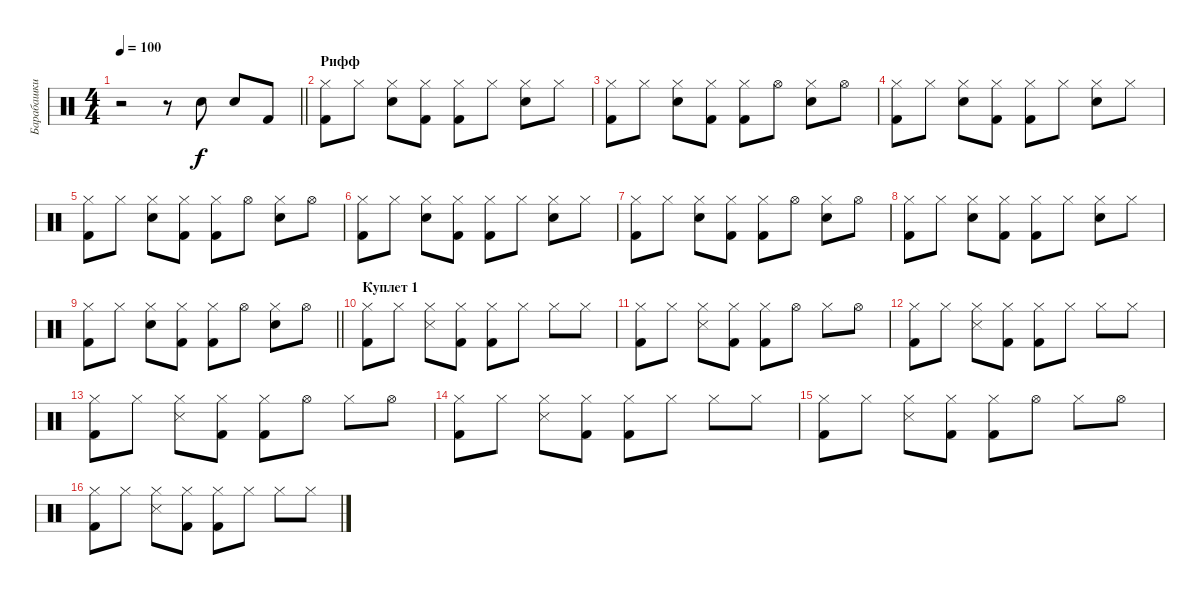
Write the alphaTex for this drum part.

\track ("Барабашки" "Барабашки") {instrument percussion}
\staff {score}
\articulation defaults
\ts (4 4)
\tempo 100
\clef neutral
\barLineRight lightlight
\ks c
r.2{dy f} r.8 "Electric Snare (hit)".8 "Electric Snare (hit)".8 "Kick (hit) 2".8 |
\section ("" "Рифф")
("Hi-Hat (closed)" "Kick (hit) 2").8 "Hi-Hat (closed)".8 ("Hi-Hat (closed)" "Electric Snare (hit)").8 ("Hi-Hat (closed)" "Kick (hit) 2").8 ("Hi-Hat (closed)" "Kick (hit) 2").8 "Hi-Hat (closed)".8 ("Hi-Hat (closed)" "Electric Snare (hit)").8 "Hi-Hat (closed)".8 |
("Hi-Hat (closed)" "Kick (hit) 2").8 "Hi-Hat (closed)".8 ("Hi-Hat (closed)" "Electric Snare (hit)").8 ("Hi-Hat (closed)" "Kick (hit) 2").8 ("Hi-Hat (closed)" "Kick (hit) 2").8 "Hi-Hat (open)".8 ("Hi-Hat (closed)" "Electric Snare (hit)").8 "Hi-Hat (open)".8 |
("Hi-Hat (closed)" "Kick (hit) 2").8 "Hi-Hat (closed)".8 ("Hi-Hat (closed)" "Electric Snare (hit)").8 ("Hi-Hat (closed)" "Kick (hit) 2").8 ("Hi-Hat (closed)" "Kick (hit) 2").8 "Hi-Hat (closed)".8 ("Hi-Hat (closed)" "Electric Snare (hit)").8 "Hi-Hat (closed)".8 |
("Hi-Hat (closed)" "Kick (hit) 2").8 "Hi-Hat (closed)".8 ("Hi-Hat (closed)" "Electric Snare (hit)").8 ("Hi-Hat (closed)" "Kick (hit) 2").8 ("Hi-Hat (closed)" "Kick (hit) 2").8 "Hi-Hat (open)".8 ("Hi-Hat (closed)" "Electric Snare (hit)").8 "Hi-Hat (open)".8 |
("Hi-Hat (closed)" "Kick (hit) 2").8 "Hi-Hat (closed)".8 ("Hi-Hat (closed)" "Electric Snare (hit)").8 ("Hi-Hat (closed)" "Kick (hit) 2").8 ("Hi-Hat (closed)" "Kick (hit) 2").8 "Hi-Hat (closed)".8 ("Hi-Hat (closed)" "Electric Snare (hit)").8 "Hi-Hat (closed)".8 |
("Hi-Hat (closed)" "Kick (hit) 2").8 "Hi-Hat (closed)".8 ("Hi-Hat (closed)" "Electric Snare (hit)").8 ("Hi-Hat (closed)" "Kick (hit) 2").8 ("Hi-Hat (closed)" "Kick (hit) 2").8 "Hi-Hat (open)".8 ("Hi-Hat (closed)" "Electric Snare (hit)").8 "Hi-Hat (open)".8 |
("Hi-Hat (closed)" "Kick (hit) 2").8 "Hi-Hat (closed)".8 ("Hi-Hat (closed)" "Electric Snare (hit)").8 ("Hi-Hat (closed)" "Kick (hit) 2").8 ("Hi-Hat (closed)" "Kick (hit) 2").8 "Hi-Hat (closed)".8 ("Hi-Hat (closed)" "Electric Snare (hit)").8 "Hi-Hat (closed)".8 |
\barLineRight lightlight
("Hi-Hat (closed)" "Kick (hit) 2").8 "Hi-Hat (closed)".8 ("Hi-Hat (closed)" "Electric Snare (hit)").8 ("Hi-Hat (closed)" "Kick (hit) 2").8 ("Hi-Hat (closed)" "Kick (hit) 2").8 "Hi-Hat (open)".8 ("Hi-Hat (closed)" "Electric Snare (hit)").8 "Hi-Hat (open)".8 |
\section ("" "Куплет 1")
("Hi-Hat (closed)" "Kick (hit) 2").8 "Hi-Hat (closed)".8 ("Hi-Hat (closed)" "Snare (side stick) 3").8 ("Hi-Hat (closed)" "Kick (hit) 2").8 ("Hi-Hat (closed)" "Kick (hit) 2").8 "Hi-Hat (closed)".8 "Hi-Hat (closed)".8 "Hi-Hat (closed)".8 |
("Hi-Hat (closed)" "Kick (hit) 2").8 "Hi-Hat (closed)".8 ("Hi-Hat (closed)" "Snare (side stick) 3").8 ("Hi-Hat (closed)" "Kick (hit) 2").8 ("Hi-Hat (closed)" "Kick (hit) 2").8 "Hi-Hat (open)".8 "Hi-Hat (closed)".8 "Hi-Hat (open)".8 |
("Hi-Hat (closed)" "Kick (hit) 2").8 "Hi-Hat (closed)".8 ("Hi-Hat (closed)" "Snare (side stick) 3").8 ("Hi-Hat (closed)" "Kick (hit) 2").8 ("Hi-Hat (closed)" "Kick (hit) 2").8 "Hi-Hat (closed)".8 "Hi-Hat (closed)".8 "Hi-Hat (closed)".8 |
("Hi-Hat (closed)" "Kick (hit) 2").8 "Hi-Hat (closed)".8 ("Hi-Hat (closed)" "Snare (side stick) 3").8 ("Hi-Hat (closed)" "Kick (hit) 2").8 ("Hi-Hat (closed)" "Kick (hit) 2").8 "Hi-Hat (open)".8 "Hi-Hat (closed)".8 "Hi-Hat (open)".8 |
("Hi-Hat (closed)" "Kick (hit) 2").8 "Hi-Hat (closed)".8 ("Hi-Hat (closed)" "Snare (side stick) 3").8 ("Hi-Hat (closed)" "Kick (hit) 2").8 ("Hi-Hat (closed)" "Kick (hit) 2").8 "Hi-Hat (closed)".8 "Hi-Hat (closed)".8 "Hi-Hat (closed)".8 |
("Hi-Hat (closed)" "Kick (hit) 2").8 "Hi-Hat (closed)".8 ("Hi-Hat (closed)" "Snare (side stick) 3").8 ("Hi-Hat (closed)" "Kick (hit) 2").8 ("Hi-Hat (closed)" "Kick (hit) 2").8 "Hi-Hat (open)".8 "Hi-Hat (closed)".8 "Hi-Hat (open)".8 |
("Hi-Hat (closed)" "Kick (hit) 2").8 "Hi-Hat (closed)".8 ("Hi-Hat (closed)" "Snare (side stick) 3").8 ("Hi-Hat (closed)" "Kick (hit) 2").8 ("Hi-Hat (closed)" "Kick (hit) 2").8 "Hi-Hat (closed)".8 "Hi-Hat (closed)".8 "Hi-Hat (closed)".8
